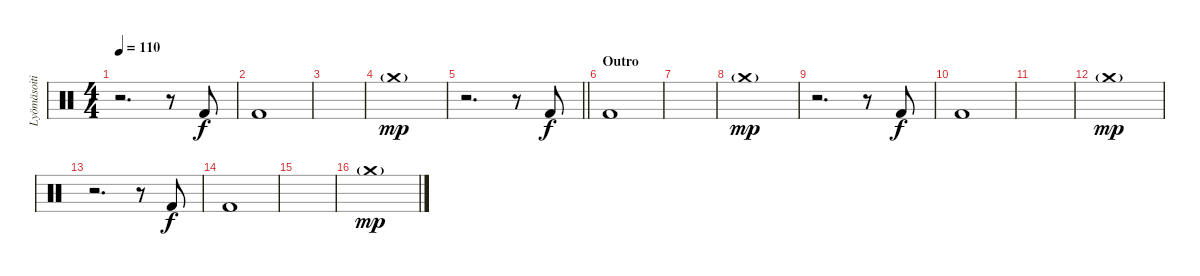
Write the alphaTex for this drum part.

\track ("Lyömäsoitin" "Lyömäsoiti") {instrument percussion}
\staff {score}
\articulation defaults
\ts (4 4)
\tempo 110
\clef neutral
\ks c
r.2{d dy mp} r.8 "Kick (hit) 2".8{dy f} |
"Kick (hit) 2".1 |
|
"Crash medium (hit)"{g}.1{dy mp} |
\barLineRight lightlight
r.2{d} r.8 "Kick (hit) 2".8{dy f} |
\section ("" "Outro")
"Kick (hit) 2".1 |
|
"Crash medium (hit)"{g}.1{dy mp} |
r.2{d} r.8 "Kick (hit) 2".8{dy f} |
"Kick (hit) 2".1 |
|
"Crash medium (hit)"{g}.1{dy mp} |
r.2{d} r.8 "Kick (hit) 2".8{dy f} |
"Kick (hit) 2".1 |
|
"Crash medium (hit)"{g}.1{dy mp}
